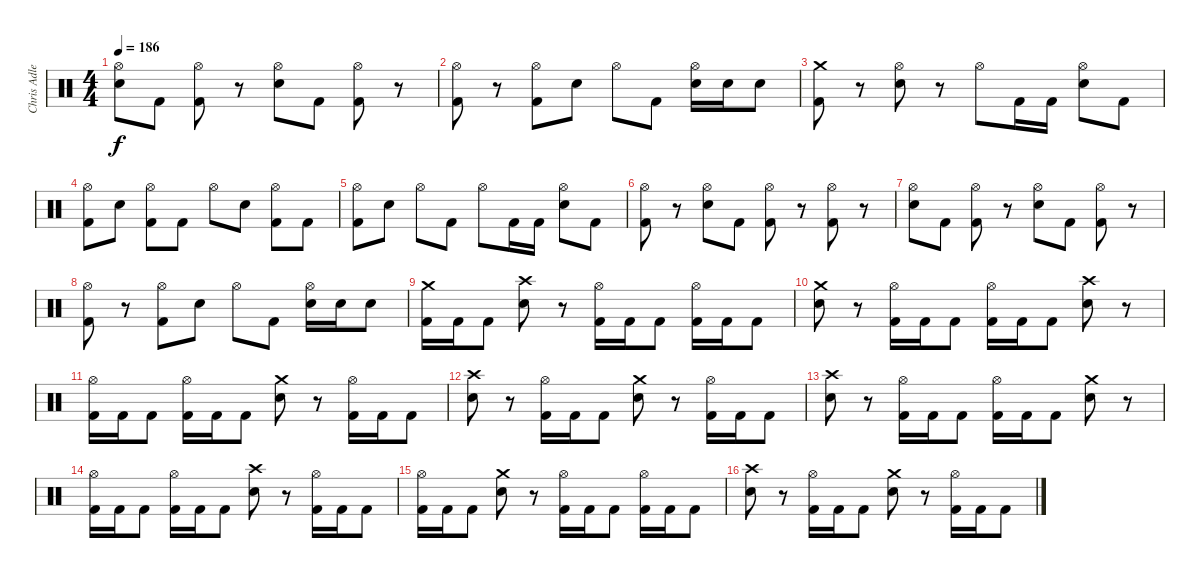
\track ("Chris Adler" "Chris Adle") {instrument percussion}
\staff {score}
\articulation defaults
\ts (4 4)
\tempo 186
\clef neutral
\ks c
("Hi-Hat (open)" "Electric Snare (hit)").8{dy f} "Kick (hit) 2".8 ("Hi-Hat (open)" "Kick (hit) 2").8 r.8 ("Hi-Hat (open)" "Electric Snare (hit)").8 "Kick (hit) 2".8 ("Hi-Hat (open)" "Kick (hit) 2").8 r.8 |
("Hi-Hat (open)" "Kick (hit) 2").8 r.8 ("Hi-Hat (open)" "Kick (hit) 2").8 "Electric Snare (hit)".8 "Hi-Hat (open)".8 "Kick (hit) 2".8 ("Hi-Hat (open)" "Electric Snare (hit)").16 "Electric Snare (hit)".16 "Electric Snare (hit)".8 |
("Crash medium (hit)" "Kick (hit) 2").8 r.8 ("Hi-Hat (open)" "Electric Snare (hit)").8 r.8 "Hi-Hat (open)".8 "Kick (hit) 2".16 "Kick (hit) 2".16 ("Hi-Hat (open)" "Electric Snare (hit)").8 "Kick (hit) 2".8 |
("Hi-Hat (open)" "Kick (hit) 2").8 "Electric Snare (hit)".8 ("Hi-Hat (open)" "Kick (hit) 2").8 "Kick (hit) 2".8 "Hi-Hat (open)".8 "Electric Snare (hit)".8 ("Hi-Hat (open)" "Kick (hit) 2").8 "Kick (hit) 2".8 |
("Hi-Hat (open)" "Kick (hit) 2").8 "Electric Snare (hit)".8 "Hi-Hat (open)".8 "Kick (hit) 2".8 "Hi-Hat (open)".8 "Kick (hit) 2".16 "Kick (hit) 2".16 ("Hi-Hat (open)" "Electric Snare (hit)").8 "Kick (hit) 2".8 |
("Hi-Hat (open)" "Kick (hit) 2").8 r.8 ("Hi-Hat (open)" "Electric Snare (hit)").8 "Kick (hit) 2".8 ("Hi-Hat (open)" "Kick (hit) 2").8 r.8 ("Hi-Hat (open)" "Kick (hit) 2").8 r.8 |
("Hi-Hat (open)" "Electric Snare (hit)").8 "Kick (hit) 2".8 ("Hi-Hat (open)" "Kick (hit) 2").8 r.8 ("Hi-Hat (open)" "Electric Snare (hit)").8 "Kick (hit) 2".8 ("Hi-Hat (open)" "Kick (hit) 2").8 r.8 |
("Hi-Hat (open)" "Kick (hit) 2").8 r.8 ("Hi-Hat (open)" "Kick (hit) 2").8 "Electric Snare (hit)".8 "Hi-Hat (open)".8 "Kick (hit) 2".8 ("Hi-Hat (open)" "Electric Snare (hit)").16 "Electric Snare (hit)".16 "Electric Snare (hit)".8 |
("Crash medium (hit)" "Kick (hit) 2").16 "Kick (hit) 2".16 "Kick (hit) 2".8 ("Crash high (hit)" "Electric Snare (hit)").8 r.8 ("Hi-Hat (open)" "Kick (hit) 2").16 "Kick (hit) 2".16 "Kick (hit) 2".8 ("Hi-Hat (open)" "Kick (hit) 2").16 "Kick (hit) 2".16 "Kick (hit) 2".8 |
("Crash medium (hit)" "Electric Snare (hit)").8 r.8 ("Hi-Hat (open)" "Kick (hit) 2").16 "Kick (hit) 2".16 "Kick (hit) 2".8 ("Hi-Hat (open)" "Kick (hit) 2").16 "Kick (hit) 2".16 "Kick (hit) 2".8 ("Crash high (hit)" "Electric Snare (hit)").8 r.8 |
("Hi-Hat (open)" "Kick (hit) 2").16 "Kick (hit) 2".16 "Kick (hit) 2".8 ("Hi-Hat (open)" "Kick (hit) 2").16 "Kick (hit) 2".16 "Kick (hit) 2".8 ("Crash medium (hit)" "Electric Snare (hit)").8 r.8 ("Hi-Hat (open)" "Kick (hit) 2").16 "Kick (hit) 2".16 "Kick (hit) 2".8 |
("Crash high (hit)" "Electric Snare (hit)").8 r.8 ("Hi-Hat (open)" "Kick (hit) 2").16 "Kick (hit) 2".16 "Kick (hit) 2".8 ("Crash medium (hit)" "Electric Snare (hit)").8 r.8 ("Hi-Hat (open)" "Kick (hit) 2").16 "Kick (hit) 2".16 "Kick (hit) 2".8 |
("Crash high (hit)" "Electric Snare (hit)").8 r.8 ("Hi-Hat (open)" "Kick (hit) 2").16 "Kick (hit) 2".16 "Kick (hit) 2".8 ("Hi-Hat (open)" "Kick (hit) 2").16 "Kick (hit) 2".16 "Kick (hit) 2".8 ("Crash medium (hit)" "Electric Snare (hit)").8 r.8 |
("Hi-Hat (open)" "Kick (hit) 2").16 "Kick (hit) 2".16 "Kick (hit) 2".8 ("Hi-Hat (open)" "Kick (hit) 2").16 "Kick (hit) 2".16 "Kick (hit) 2".8 ("Crash high (hit)" "Electric Snare (hit)").8 r.8 ("Hi-Hat (open)" "Kick (hit) 2").16 "Kick (hit) 2".16 "Kick (hit) 2".8 |
("Hi-Hat (open)" "Kick (hit) 2").16 "Kick (hit) 2".16 "Kick (hit) 2".8 ("Crash medium (hit)" "Electric Snare (hit)").8 r.8 ("Hi-Hat (open)" "Kick (hit) 2").16 "Kick (hit) 2".16 "Kick (hit) 2".8 ("Hi-Hat (open)" "Kick (hit) 2").16 "Kick (hit) 2".16 "Kick (hit) 2".8 |
("Crash high (hit)" "Electric Snare (hit)").8 r.8 ("Hi-Hat (open)" "Kick (hit) 2").16 "Kick (hit) 2".16 "Kick (hit) 2".8 ("Crash medium (hit)" "Electric Snare (hit)").8 r.8 ("Hi-Hat (open)" "Kick (hit) 2").16 "Kick (hit) 2".16 "Kick (hit) 2".8
